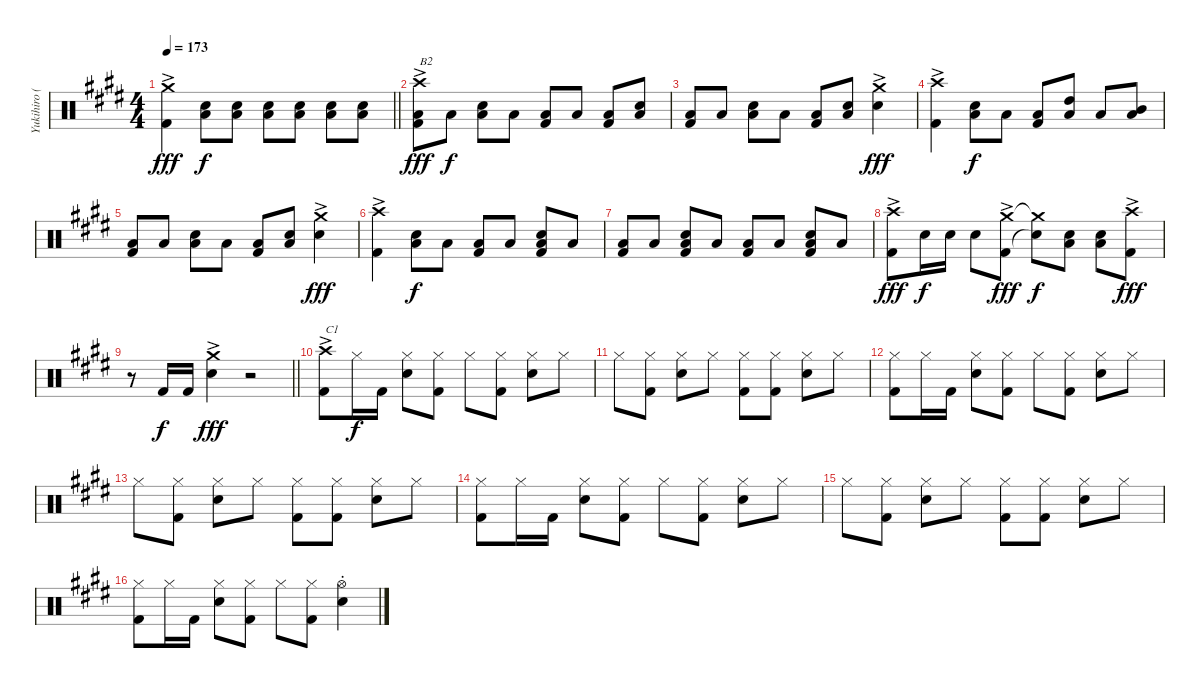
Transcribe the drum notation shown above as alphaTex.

\track ("Yukihiro (Drums)" "Yukihiro (") {instrument percussion}
\staff {score}
\articulation defaults
\ts (4 4)
\tempo 173
\clef neutral
\barLineRight lightlight
\ks e
("Crash medium (hit)"{ac} "Kick (hit) 2").4{dy fff} ("Electric Snare (hit)" "Low Tom (hit)").8{dy f} ("Electric Snare (hit)" "Low Tom (hit)").8 ("Electric Snare (hit)" "Low Tom (hit)").8 ("Electric Snare (hit)" "Low Tom (hit)").8 ("Electric Snare (hit)" "Low Tom (hit)").8 ("Electric Snare (hit)" "Low Tom (hit)").8 |
("Crash high (hit)"{ac} "Low Tom (hit)" "Kick (hit) 2").8{txt "B2" dy fff} "Low Tom (hit)".8{dy f} ("Electric Snare (hit)" "Low Tom (hit)").8 "Low Tom (hit)".8 ("Low Tom (hit)" "Kick (hit) 2").8 "Low Tom (hit)".8 ("Low Tom (hit)" "Kick (hit) 2").8 ("Electric Snare (hit)" "Low Tom (hit)").8 |
("Low Tom (hit)" "Kick (hit) 2").8 "Low Tom (hit)".8 ("Electric Snare (hit)" "Low Tom (hit)").8 "Low Tom (hit)".8 ("Low Tom (hit)" "Kick (hit) 2").8 ("Electric Snare (hit)" "Low Tom (hit)").8 ("Crash medium (hit)"{ac} "Electric Snare (hit)").4{dy fff} |
("Crash high (hit)"{ac} "Kick (hit) 2").4 ("Electric Snare (hit)" "Low Tom (hit)").8{dy f} "Low Tom (hit)".8 ("Low Tom (hit)" "Kick (hit) 2").8 ("Low Tom (hit)" "High Tom (hit)").8 "Low Tom (hit)".8 ("Low Tom (hit)" "Mid Tom (hit)").8 |
("Low Tom (hit)" "Kick (hit) 2").8 "Low Tom (hit)".8 ("Electric Snare (hit)" "Low Tom (hit)").8 "Low Tom (hit)".8 ("Low Tom (hit)" "Kick (hit) 2").8 ("Electric Snare (hit)" "Low Tom (hit)").8 ("Crash medium (hit)"{ac} "Electric Snare (hit)").4{dy fff} |
("Crash high (hit)"{ac} "Kick (hit) 2").4 ("Electric Snare (hit)" "Low Tom (hit)").8{dy f} "Low Tom (hit)".8 ("Low Tom (hit)" "Kick (hit) 2").8 "Low Tom (hit)".8 ("Electric Snare (hit)" "Low Tom (hit)" "Kick (hit) 2").8 "Low Tom (hit)".8 |
("Low Tom (hit)" "Kick (hit) 2").8 "Low Tom (hit)".8 ("Electric Snare (hit)" "Low Tom (hit)" "Kick (hit) 2").8 "Low Tom (hit)".8 ("Low Tom (hit)" "Kick (hit) 2").8 "Low Tom (hit)".8 ("Electric Snare (hit)" "Low Tom (hit)" "Kick (hit) 2").8 "Low Tom (hit)".8 |
("Crash high (hit)"{ac} "Kick (hit) 2").8{dy fff} "Electric Snare (hit)".16{dy f} "Electric Snare (hit)".16 "Electric Snare (hit)".8 ("Crash medium (hit)"{ac} "Kick (hit) 2").8{dy fff} ("Crash medium (hit)"{t} "Snare (hit)"{t}).8{dy f} ("Electric Snare (hit)" "Low Tom (hit)").8 ("Electric Snare (hit)" "Low Tom (hit)").8 ("Crash high (hit)"{ac} "Kick (hit) 2").8{dy fff} |
\barLineRight lightlight
r.8 "Kick (hit) 2".16{dy f} "Kick (hit) 2".16 ("Crash medium (hit)"{ac} "Electric Snare (hit)").4{dy fff} r.2 |
("Crash high (hit)"{ac} "Kick (hit) 2").8{txt "C1"} "Hi-Hat (closed)".16{dy f} "Kick (hit) 2".16 ("Hi-Hat (closed)" "Electric Snare (hit)").8 ("Hi-Hat (closed)" "Kick (hit) 2").8 "Hi-Hat (closed)".8 ("Hi-Hat (closed)" "Kick (hit) 2").8 ("Hi-Hat (closed)" "Electric Snare (hit)").8 "Hi-Hat (closed)".8 |
"Hi-Hat (closed)".8 ("Hi-Hat (closed)" "Kick (hit) 2").8 ("Hi-Hat (closed)" "Electric Snare (hit)").8 "Hi-Hat (closed)".8 ("Hi-Hat (closed)" "Kick (hit) 2").8 ("Hi-Hat (closed)" "Kick (hit) 2").8 ("Hi-Hat (closed)" "Electric Snare (hit)").8 "Hi-Hat (closed)".8 |
("Hi-Hat (closed)" "Kick (hit) 2").8 "Hi-Hat (closed)".16 "Kick (hit) 2".16 ("Hi-Hat (closed)" "Electric Snare (hit)").8 ("Hi-Hat (closed)" "Kick (hit) 2").8 "Hi-Hat (closed)".8 ("Hi-Hat (closed)" "Kick (hit) 2").8 ("Hi-Hat (closed)" "Electric Snare (hit)").8 "Hi-Hat (closed)".8 |
"Hi-Hat (closed)".8 ("Hi-Hat (closed)" "Kick (hit) 2").8 ("Hi-Hat (closed)" "Electric Snare (hit)").8 "Hi-Hat (closed)".8 ("Hi-Hat (closed)" "Kick (hit) 2").8 ("Hi-Hat (closed)" "Kick (hit) 2").8 ("Hi-Hat (closed)" "Electric Snare (hit)").8 "Hi-Hat (closed)".8 |
("Hi-Hat (closed)" "Kick (hit) 2").8 "Hi-Hat (closed)".16 "Kick (hit) 2".16 ("Hi-Hat (closed)" "Electric Snare (hit)").8 ("Hi-Hat (closed)" "Kick (hit) 2").8 "Hi-Hat (closed)".8 ("Hi-Hat (closed)" "Kick (hit) 2").8 ("Hi-Hat (closed)" "Electric Snare (hit)").8 "Hi-Hat (closed)".8 |
"Hi-Hat (closed)".8 ("Hi-Hat (closed)" "Kick (hit) 2").8 ("Hi-Hat (closed)" "Electric Snare (hit)").8 "Hi-Hat (closed)".8 ("Hi-Hat (closed)" "Kick (hit) 2").8 ("Hi-Hat (closed)" "Kick (hit) 2").8 ("Hi-Hat (closed)" "Electric Snare (hit)").8 "Hi-Hat (closed)".8 |
("Hi-Hat (closed)" "Kick (hit) 2").8 "Hi-Hat (closed)".16 "Kick (hit) 2".16 ("Hi-Hat (closed)" "Electric Snare (hit)").8 ("Hi-Hat (closed)" "Kick (hit) 2").8 "Hi-Hat (closed)".8 ("Hi-Hat (closed)" "Kick (hit) 2").8 ("Hi-Hat (open)"{st} "Electric Snare (hit)").4
